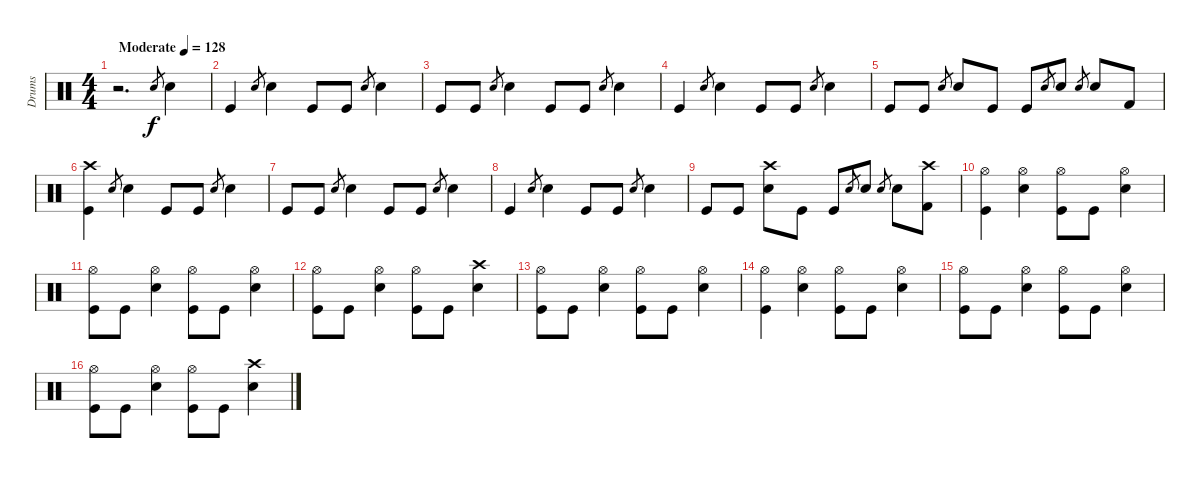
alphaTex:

\track ("Drums" "Drums") {instrument percussion}
\staff {score}
\articulation defaults
\ts (4 4)
\tempo (128 "Moderate")
\clef neutral
\ks c
r.2{d dy f} "Electric Snare (hit)".8{gr} "Electric Snare (hit)".4 |
"Kick (hit)".4 "Electric Snare (hit)".8{gr} "Electric Snare (hit)".4 "Kick (hit)".8 "Kick (hit)".8 "Electric Snare (hit)".8{gr} "Electric Snare (hit)".4 |
"Kick (hit)".8 "Kick (hit)".8 "Electric Snare (hit)".8{gr} "Electric Snare (hit)".4 "Kick (hit)".8 "Kick (hit)".8 "Electric Snare (hit)".8{gr} "Electric Snare (hit)".4 |
"Kick (hit)".4 "Electric Snare (hit)".8{gr} "Electric Snare (hit)".4 "Kick (hit)".8 "Kick (hit)".8 "Electric Snare (hit)".8{gr} "Electric Snare (hit)".4 |
"Kick (hit)".8 "Kick (hit)".8 "Electric Snare (hit)".8{gr} "Electric Snare (hit)".8 "Kick (hit)".8 "Kick (hit)".8 "Electric Snare (hit)".8{gr} "Electric Snare (hit)".8 "Electric Snare (hit)".8{gr} "Electric Snare (hit)".8 "Kick (hit) 2".8 |
("Crash high (hit)" "Kick (hit)").4 "Electric Snare (hit)".8{gr} "Electric Snare (hit)".4 "Kick (hit)".8 "Kick (hit)".8 "Electric Snare (hit)".8{gr} "Electric Snare (hit)".4 |
"Kick (hit)".8 "Kick (hit)".8 "Electric Snare (hit)".8{gr} "Electric Snare (hit)".4 "Kick (hit)".8 "Kick (hit)".8 "Electric Snare (hit)".8{gr} "Electric Snare (hit)".4 |
"Kick (hit)".4 "Electric Snare (hit)".8{gr} "Electric Snare (hit)".4 "Kick (hit)".8 "Kick (hit)".8 "Electric Snare (hit)".8{gr} "Electric Snare (hit)".4 |
"Kick (hit)".8 "Kick (hit)".8 ("Crash high (hit)" "Electric Snare (hit)").8 "Kick (hit)".8 "Kick (hit)".8 "Electric Snare (hit)".8{gr} "Electric Snare (hit)".8 "Electric Snare (hit)".8{gr} "Electric Snare (hit)".8 ("Crash high (hit)" "Kick (hit) 2").8 |
("Hi-Hat (open)" "Kick (hit)").4 ("Hi-Hat (open)" "Electric Snare (hit)").4 ("Hi-Hat (open)" "Kick (hit)").8 "Kick (hit)".8 ("Hi-Hat (open)" "Electric Snare (hit)").4 |
("Hi-Hat (open)" "Kick (hit)").8 "Kick (hit)".8 ("Hi-Hat (open)" "Electric Snare (hit)").4 ("Hi-Hat (open)" "Kick (hit)").8 "Kick (hit)".8 ("Hi-Hat (open)" "Electric Snare (hit)").4 |
("Hi-Hat (open)" "Kick (hit)").8 "Kick (hit)".8 ("Hi-Hat (open)" "Electric Snare (hit)").4 ("Hi-Hat (open)" "Kick (hit)").8 "Kick (hit)".8 ("Crash high (hit)" "Electric Snare (hit)").4 |
("Hi-Hat (open)" "Kick (hit)").8 "Kick (hit)".8 ("Hi-Hat (open)" "Electric Snare (hit)").4 ("Hi-Hat (open)" "Kick (hit)").8 "Kick (hit)".8 ("Hi-Hat (open)" "Electric Snare (hit)").4 |
("Hi-Hat (open)" "Kick (hit)").4 ("Hi-Hat (open)" "Electric Snare (hit)").4 ("Hi-Hat (open)" "Kick (hit)").8 "Kick (hit)".8 ("Hi-Hat (open)" "Electric Snare (hit)").4 |
("Hi-Hat (open)" "Kick (hit)").8 "Kick (hit)".8 ("Hi-Hat (open)" "Electric Snare (hit)").4 ("Hi-Hat (open)" "Kick (hit)").8 "Kick (hit)".8 ("Hi-Hat (open)" "Electric Snare (hit)").4 |
("Hi-Hat (open)" "Kick (hit)").8 "Kick (hit)".8 ("Hi-Hat (open)" "Electric Snare (hit)").4 ("Hi-Hat (open)" "Kick (hit)").8 "Kick (hit)".8 ("Crash high (hit)" "Electric Snare (hit)").4
